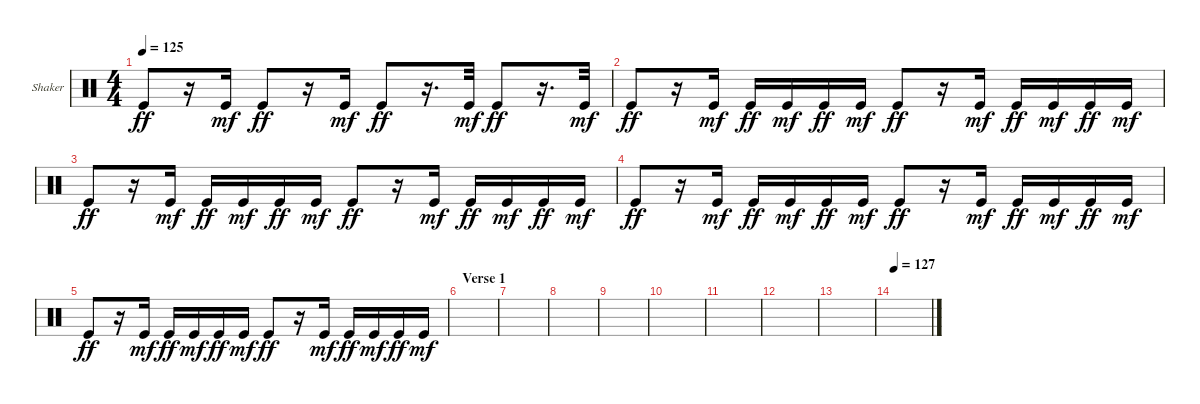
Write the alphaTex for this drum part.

\bracketExtendMode groupsimilarinstruments
\firstSystemTrackNameOrientation horizontal
\otherSystemsTrackNameOrientation horizontal
\track ("Shaker" "Shaker") {instrument percussion}
\staff {score}
\articulation defaults
\ts (4 4)
\tempo 125
\clef neutral
\ks c "Kick (hit)".8{dy ff}
r.16 "Kick (hit)".16{dy mf} "Kick (hit)".8{dy ff} r.16 "Kick (hit)".16{dy mf} "Kick (hit)".8{dy ff} r.16{d} "Kick (hit)".32{dy mf} "Kick (hit)".8{dy ff} r.16{d} "Kick (hit)".32{dy mf} |
"Kick (hit)".8{dy ff} r.16 "Kick (hit)".16{dy mf} "Kick (hit)".16{dy ff} "Kick (hit)".16{dy mf} "Kick (hit)".16{dy ff} "Kick (hit)".16{dy mf} "Kick (hit)".8{dy ff} r.16 "Kick (hit)".16{dy mf} "Kick (hit)".16{dy ff} "Kick (hit)".16{dy mf} "Kick (hit)".16{dy ff} "Kick (hit)".16{dy mf} |
"Kick (hit)".8{dy ff} r.16 "Kick (hit)".16{dy mf} "Kick (hit)".16{dy ff} "Kick (hit)".16{dy mf} "Kick (hit)".16{dy ff} "Kick (hit)".16{dy mf} "Kick (hit)".8{dy ff} r.16 "Kick (hit)".16{dy mf} "Kick (hit)".16{dy ff} "Kick (hit)".16{dy mf} "Kick (hit)".16{dy ff} "Kick (hit)".16{dy mf} |
"Kick (hit)".8{dy ff} r.16 "Kick (hit)".16{dy mf} "Kick (hit)".16{dy ff} "Kick (hit)".16{dy mf} "Kick (hit)".16{dy ff} "Kick (hit)".16{dy mf} "Kick (hit)".8{dy ff} r.16 "Kick (hit)".16{dy mf} "Kick (hit)".16{dy ff} "Kick (hit)".16{dy mf} "Kick (hit)".16{dy ff} "Kick (hit)".16{dy mf} |
\section ("" "")
"Kick (hit)".8{dy ff} r.16 "Kick (hit)".16{dy mf} "Kick (hit)".16{dy ff} "Kick (hit)".16{dy mf} "Kick (hit)".16{dy ff} "Kick (hit)".16{dy mf} "Kick (hit)".8{dy ff} r.16 "Kick (hit)".16{dy mf} "Kick (hit)".16{dy ff} "Kick (hit)".16{dy mf} "Kick (hit)".16{dy ff} "Kick (hit)".16{dy mf} |
\section ("" "Verse 1")
|
|
|
|
|
|
|
|
\tempo 127
